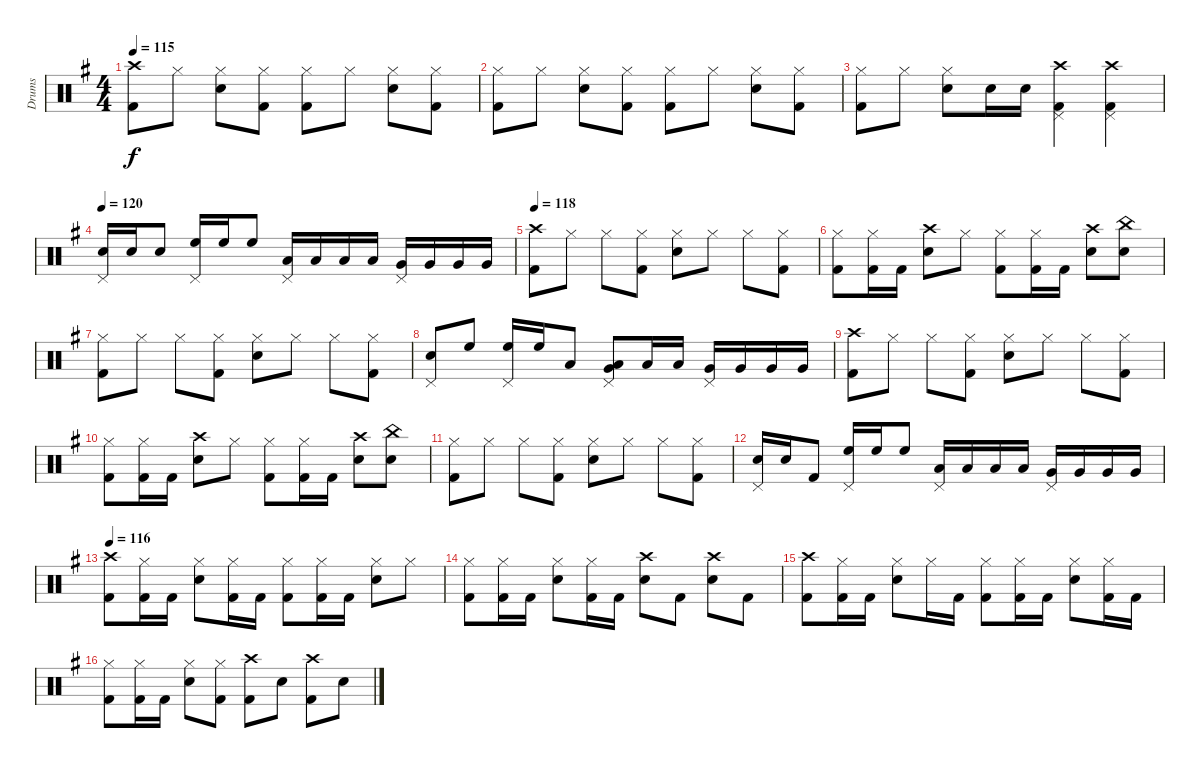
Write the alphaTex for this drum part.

\track ("Drums" "Drums") {instrument percussion}
\staff {score}
\articulation defaults
\ts (4 4)
\tempo 115
\clef neutral
\ks eminor
("Crash high (hit)" "Kick (hit) 2").8{dy f} "Hi-Hat (closed)".8 ("Hi-Hat (closed)" "Electric Snare (hit)").8 ("Hi-Hat (closed)" "Kick (hit) 2").8 ("Hi-Hat (closed)" "Kick (hit) 2").8 "Hi-Hat (closed)".8 ("Hi-Hat (closed)" "Electric Snare (hit)").8 ("Hi-Hat (closed)" "Kick (hit) 2").8 |
("Hi-Hat (closed)" "Kick (hit) 2").8 "Hi-Hat (closed)".8 ("Hi-Hat (closed)" "Electric Snare (hit)").8 ("Hi-Hat (closed)" "Kick (hit) 2").8 ("Hi-Hat (closed)" "Kick (hit) 2").8 "Hi-Hat (closed)".8 ("Hi-Hat (closed)" "Electric Snare (hit)").8 ("Hi-Hat (closed)" "Kick (hit) 2").8 |
("Hi-Hat (closed)" "Kick (hit) 2").8 "Hi-Hat (closed)".8 ("Hi-Hat (closed)" "Electric Snare (hit)").8 "Electric Snare (hit)".16 "Electric Snare (hit)".16 ("Crash high (hit)" "Pedal Hi-Hat (hit)" "Kick (hit) 2").4 ("Crash high (hit)" "Pedal Hi-Hat (hit)" "Kick (hit) 2").4 |
\tempo 120
("Pedal Hi-Hat (hit)" "Electric Snare (hit)").16 "Electric Snare (hit)".16 "Electric Snare (hit)".8 ("Pedal Hi-Hat (hit)" "High Floor Tom (hit)").16 "High Floor Tom (hit)".16 "High Floor Tom (hit)".8 ("Pedal Hi-Hat (hit)" "Low Tom (hit)").16 "Low Tom (hit)".16 "Low Tom (hit)".16 "Low Tom (hit)".16 ("Pedal Hi-Hat (hit)" "Very Low Tom (hit)").16 "Very Low Tom (hit)".16 "Very Low Tom (hit)".16 "Very Low Tom (hit)".16 |
\tempo 118
("Crash high (hit)" "Kick (hit) 2").8 "Hi-Hat (closed)".8 "Hi-Hat (closed)".8 ("Hi-Hat (closed)" "Kick (hit) 2").8 ("Hi-Hat (closed)" "Electric Snare (hit)").8 "Hi-Hat (closed)".8 "Hi-Hat (closed)".8 ("Hi-Hat (closed)" "Kick (hit) 2").8 |
("Hi-Hat (closed)" "Kick (hit) 2").8 ("Hi-Hat (closed)" "Kick (hit) 2").16 "Kick (hit) 2".16 ("Crash high (hit)" "Electric Snare (hit)").8 "Hi-Hat (closed)".8 ("Hi-Hat (closed)" "Kick (hit) 2").8 ("Hi-Hat (closed)" "Kick (hit) 2").16 "Kick (hit) 2".16 ("Crash high (hit)" "Electric Snare (hit)").8 ("China (hit)" "Electric Snare (hit)").8 |
("Hi-Hat (closed)" "Kick (hit) 2").8 "Hi-Hat (closed)".8 "Hi-Hat (closed)".8 ("Hi-Hat (closed)" "Kick (hit) 2").8 ("Hi-Hat (closed)" "Electric Snare (hit)").8 "Hi-Hat (closed)".8 "Hi-Hat (closed)".8 ("Hi-Hat (closed)" "Kick (hit) 2").8 |
("Pedal Hi-Hat (hit)" "Electric Snare (hit)").8 "High Floor Tom (hit)".8 ("Pedal Hi-Hat (hit)" "High Floor Tom (hit)").16 "High Floor Tom (hit)".16 "Low Tom (hit)".8 ("Pedal Hi-Hat (hit)" "Low Tom (hit)" "Very Low Tom (hit)").8 "Low Tom (hit)".16 "Low Tom (hit)".16 ("Pedal Hi-Hat (hit)" "Very Low Tom (hit)").16 "Very Low Tom (hit)".16 "Very Low Tom (hit)".16 "Very Low Tom (hit)".16 |
("Crash high (hit)" "Kick (hit) 2").8 "Hi-Hat (closed)".8 "Hi-Hat (closed)".8 ("Hi-Hat (closed)" "Kick (hit) 2").8 ("Hi-Hat (closed)" "Electric Snare (hit)").8 "Hi-Hat (closed)".8 "Hi-Hat (closed)".8 ("Hi-Hat (closed)" "Kick (hit) 2").8 |
("Hi-Hat (closed)" "Kick (hit) 2").8 ("Hi-Hat (closed)" "Kick (hit) 2").16 "Kick (hit) 2".16 ("Crash high (hit)" "Electric Snare (hit)").8 "Hi-Hat (closed)".8 ("Hi-Hat (closed)" "Kick (hit) 2").8 ("Hi-Hat (closed)" "Kick (hit) 2").16 "Kick (hit) 2".16 ("Crash high (hit)" "Electric Snare (hit)").8 ("China (hit)" "Electric Snare (hit)").8 |
("Hi-Hat (closed)" "Kick (hit) 2").8 "Hi-Hat (closed)".8 "Hi-Hat (closed)".8 ("Hi-Hat (closed)" "Kick (hit) 2").8 ("Hi-Hat (closed)" "Electric Snare (hit)").8 "Hi-Hat (closed)".8 "Hi-Hat (closed)".8 ("Hi-Hat (closed)" "Kick (hit) 2").8 |
("Pedal Hi-Hat (hit)" "Electric Snare (hit)").16 "Electric Snare (hit)".16 "Kick (hit) 2".8 ("Pedal Hi-Hat (hit)" "High Floor Tom (hit)").16 "High Floor Tom (hit)".16 "High Floor Tom (hit)".8 ("Pedal Hi-Hat (hit)" "Low Tom (hit)").16 "Low Tom (hit)".16 "Low Tom (hit)".16 "Low Tom (hit)".16 ("Pedal Hi-Hat (hit)" "Very Low Tom (hit)").16 "Very Low Tom (hit)".16 "Very Low Tom (hit)".16 "Very Low Tom (hit)".16 |
\tempo 116
("Crash high (hit)" "Kick (hit) 2").8 ("Hi-Hat (closed)" "Kick (hit) 2").16 "Kick (hit) 2".16 ("Hi-Hat (closed)" "Electric Snare (hit)").8 ("Hi-Hat (closed)" "Kick (hit) 2").16 "Kick (hit) 2".16 ("Hi-Hat (closed)" "Kick (hit) 2").8 ("Hi-Hat (closed)" "Kick (hit) 2").16 "Kick (hit) 2".16 ("Hi-Hat (closed)" "Electric Snare (hit)").8 "Hi-Hat (closed)".8 |
("Hi-Hat (closed)" "Kick (hit) 2").8 ("Hi-Hat (closed)" "Kick (hit) 2").16 "Kick (hit) 2".16 ("Hi-Hat (closed)" "Electric Snare (hit)").8 ("Hi-Hat (closed)" "Kick (hit) 2").16 "Kick (hit) 2".16 ("Crash high (hit)" "Electric Snare (hit)").8 "Kick (hit) 2".8 ("Crash high (hit)" "Electric Snare (hit)").8 "Kick (hit) 2".8 |
("Crash high (hit)" "Kick (hit) 2").8 ("Hi-Hat (closed)" "Kick (hit) 2").16 "Kick (hit) 2".16 ("Hi-Hat (closed)" "Electric Snare (hit)").8 "Hi-Hat (closed)".16 "Kick (hit) 2".16 ("Hi-Hat (closed)" "Kick (hit) 2").8 ("Hi-Hat (closed)" "Kick (hit) 2").16 "Kick (hit) 2".16 ("Hi-Hat (closed)" "Electric Snare (hit)").8 ("Hi-Hat (closed)" "Kick (hit) 2").16 "Kick (hit) 2".16 |
("Hi-Hat (closed)" "Kick (hit) 2").8 ("Hi-Hat (closed)" "Kick (hit) 2").16 "Kick (hit) 2".16 ("Hi-Hat (closed)" "Electric Snare (hit)").8 ("Hi-Hat (closed)" "Kick (hit) 2").8 ("Crash high (hit)" "Kick (hit) 2").8 "Electric Snare (hit)".8 ("Crash high (hit)" "Kick (hit) 2").8 "Electric Snare (hit)".8
